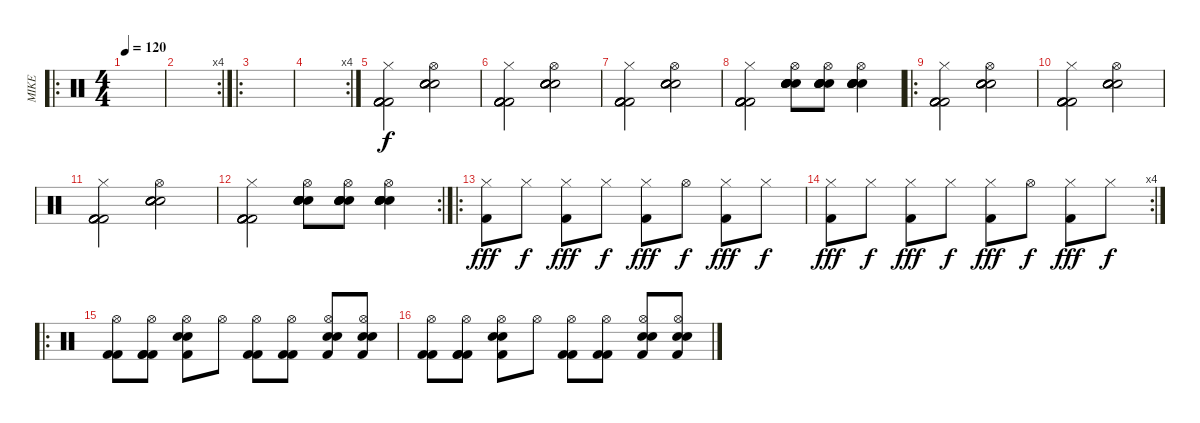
\track ("MIKE" "MIKE") {instrument percussion}
\staff {score}
\articulation defaults
\ro
\ts (4 4)
\tempo 120
\clef neutral
\ks c
|
\rc 4
|
\ro
|
\rc 4
|
("Hi-Hat (closed)" "Kick (hit) 2" "Kick (hit) 2" "Kick (hit) 2" "Kick (hit) 2" "Kick (hit) 2").2 ("Hi-Hat (open)" "Snare (hit) 2" "Snare (hit) 2" "Snare (hit) 2" "Snare (hit) 2" "Snare (hit) 2").2 |
("Hi-Hat (closed)" "Kick (hit) 2" "Kick (hit) 2" "Kick (hit) 2" "Kick (hit) 2" "Kick (hit) 2").2 ("Hi-Hat (open)" "Snare (hit) 2" "Snare (hit) 2" "Snare (hit) 2" "Snare (hit) 2" "Snare (hit) 2").2 |
("Hi-Hat (closed)" "Kick (hit) 2" "Kick (hit) 2" "Kick (hit) 2" "Kick (hit) 2" "Kick (hit) 2").2 ("Hi-Hat (open)" "Snare (hit) 2" "Snare (hit) 2" "Snare (hit) 2" "Snare (hit) 2" "Snare (hit) 2").2 |
("Hi-Hat (closed)" "Kick (hit) 2" "Kick (hit) 2" "Kick (hit) 2" "Kick (hit) 2" "Kick (hit) 2").2 ("Hi-Hat (open)" "Snare (hit) 2" "Snare (hit) 2" "Snare (hit) 2" "Snare (hit) 2" "Snare (hit) 2").8 ("Hi-Hat (open)" "Snare (hit) 2" "Snare (hit) 2" "Snare (hit) 2" "Snare (hit) 2" "Snare (hit) 2").8 ("Hi-Hat (open)" "Snare (hit) 2" "Snare (hit) 2" "Snare (hit) 2" "Snare (hit) 2" "Snare (hit) 2").4 |
\ro
("Hi-Hat (closed)" "Kick (hit) 2" "Kick (hit) 2" "Kick (hit) 2" "Kick (hit) 2" "Kick (hit) 2").2 ("Hi-Hat (open)" "Snare (hit) 2" "Snare (hit) 2" "Snare (hit) 2" "Snare (hit) 2" "Snare (hit) 2").2 |
("Hi-Hat (closed)" "Kick (hit) 2" "Kick (hit) 2" "Kick (hit) 2" "Kick (hit) 2" "Kick (hit) 2").2 ("Hi-Hat (open)" "Snare (hit) 2" "Snare (hit) 2" "Snare (hit) 2" "Snare (hit) 2" "Snare (hit) 2").2 |
("Hi-Hat (closed)" "Kick (hit) 2" "Kick (hit) 2" "Kick (hit) 2" "Kick (hit) 2" "Kick (hit) 2").2 ("Hi-Hat (open)" "Snare (hit) 2" "Snare (hit) 2" "Snare (hit) 2" "Snare (hit) 2" "Snare (hit) 2").2 |
\rc 2
("Hi-Hat (closed)" "Kick (hit) 2" "Kick (hit) 2" "Kick (hit) 2" "Kick (hit) 2" "Kick (hit) 2").2 ("Hi-Hat (open)" "Snare (hit) 2" "Snare (hit) 2" "Snare (hit) 2" "Snare (hit) 2" "Snare (hit) 2").8 ("Hi-Hat (open)" "Snare (hit) 2" "Snare (hit) 2" "Snare (hit) 2" "Snare (hit) 2" "Snare (hit) 2").8 ("Hi-Hat (open)" "Snare (hit) 2" "Snare (hit) 2" "Snare (hit) 2" "Snare (hit) 2" "Snare (hit) 2").4 |
\ro
("Kick (hit) 2" "Hi-Hat (closed)").8{dy fff} "Hi-Hat (closed)".8{dy f} ("Kick (hit) 2" "Hi-Hat (closed)").8{dy fff} "Hi-Hat (closed)".8{dy f} ("Kick (hit) 2" "Hi-Hat (closed)").8{dy fff} "Hi-Hat (open)".8{dy f} ("Kick (hit) 2" "Hi-Hat (closed)").8{dy fff} "Hi-Hat (closed)".8{dy f} |
\rc 4
("Kick (hit) 2" "Hi-Hat (closed)").8{dy fff} "Hi-Hat (closed)".8{dy f} ("Kick (hit) 2" "Hi-Hat (closed)").8{dy fff} "Hi-Hat (closed)".8{dy f} ("Kick (hit) 2" "Hi-Hat (closed)").8{dy fff} "Hi-Hat (open)".8{dy f} ("Kick (hit) 2" "Hi-Hat (closed)").8{dy fff} "Hi-Hat (closed)".8{dy f} |
\ro
("Kick (hit) 2" "Kick (hit) 2" "Hi-Hat (open)").8 ("Kick (hit) 2" "Kick (hit) 2" "Kick (hit) 2" "Hi-Hat (open)").8 ("Kick (hit) 2" "Electric Snare (hit)" "Electric Snare (hit)" "Hi-Hat (open)").8 "Hi-Hat (open)".8 ("Kick (hit) 2" "Kick (hit) 2" "Hi-Hat (open)").8 ("Kick (hit) 2" "Kick (hit) 2" "Hi-Hat (open)").8 ("Kick (hit) 2" "Electric Snare (hit)" "Electric Snare (hit)" "Hi-Hat (open)").8 ("Kick (hit) 2" "Electric Snare (hit)" "Electric Snare (hit)" "Hi-Hat (open)").8 |
("Kick (hit) 2" "Kick (hit) 2" "Hi-Hat (open)").8 ("Kick (hit) 2" "Kick (hit) 2" "Kick (hit) 2" "Hi-Hat (open)").8 ("Kick (hit) 2" "Electric Snare (hit)" "Electric Snare (hit)" "Hi-Hat (open)").8 "Hi-Hat (open)".8 ("Kick (hit) 2" "Kick (hit) 2" "Hi-Hat (open)").8 ("Kick (hit) 2" "Kick (hit) 2" "Hi-Hat (open)").8 ("Kick (hit) 2" "Electric Snare (hit)" "Electric Snare (hit)" "Hi-Hat (open)").8 ("Kick (hit) 2" "Electric Snare (hit)" "Electric Snare (hit)" "Hi-Hat (open)").8
